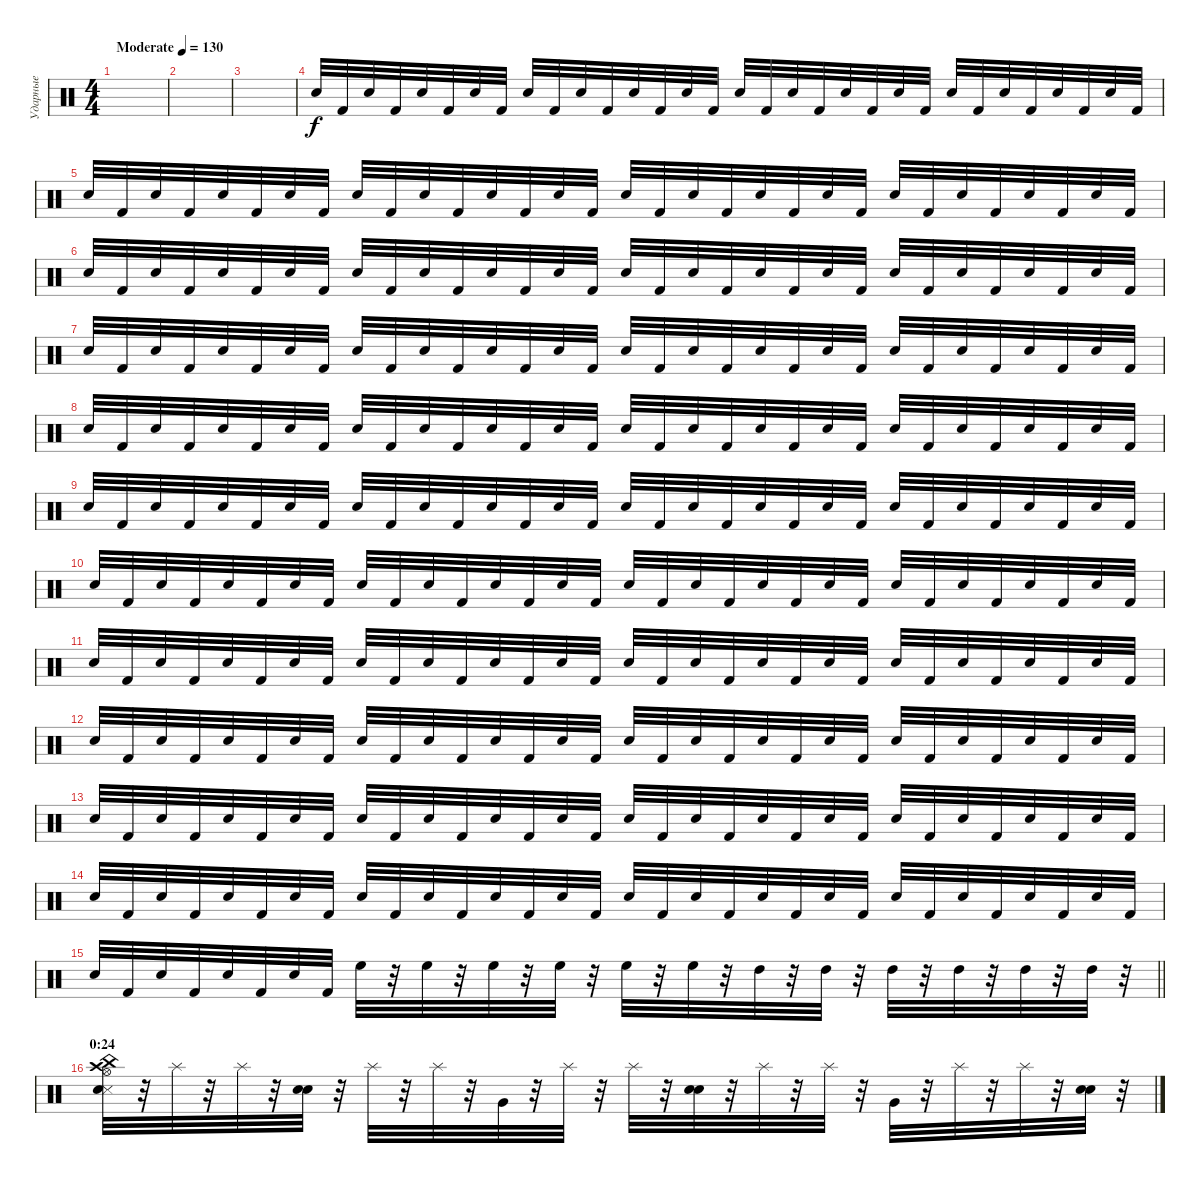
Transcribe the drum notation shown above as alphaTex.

\track ("Ударные" "Ударные") {instrument percussion}
\staff {score}
\articulation defaults
\ts (4 4)
\tempo (130 "Moderate")
\clef neutral
\ks c
|
|
|
"Electric Snare (hit)".32 "Kick (hit) 2".32 "Electric Snare (hit)".32 "Kick (hit) 2".32 "Electric Snare (hit)".32 "Kick (hit) 2".32 "Electric Snare (hit)".32 "Kick (hit) 2".32 "Electric Snare (hit)".32 "Kick (hit) 2".32 "Electric Snare (hit)".32 "Kick (hit) 2".32 "Electric Snare (hit)".32 "Kick (hit) 2".32 "Electric Snare (hit)".32 "Kick (hit) 2".32 "Electric Snare (hit)".32 "Kick (hit) 2".32 "Electric Snare (hit)".32 "Kick (hit) 2".32 "Electric Snare (hit)".32 "Kick (hit) 2".32 "Electric Snare (hit)".32 "Kick (hit) 2".32 "Electric Snare (hit)".32 "Kick (hit) 2".32 "Electric Snare (hit)".32 "Kick (hit) 2".32 "Electric Snare (hit)".32 "Kick (hit) 2".32 "Electric Snare (hit)".32 "Kick (hit) 2".32 |
"Electric Snare (hit)".32 "Kick (hit) 2".32 "Electric Snare (hit)".32 "Kick (hit) 2".32 "Electric Snare (hit)".32 "Kick (hit) 2".32 "Electric Snare (hit)".32 "Kick (hit) 2".32 "Electric Snare (hit)".32 "Kick (hit) 2".32 "Electric Snare (hit)".32 "Kick (hit) 2".32 "Electric Snare (hit)".32 "Kick (hit) 2".32 "Electric Snare (hit)".32 "Kick (hit) 2".32 "Electric Snare (hit)".32 "Kick (hit) 2".32 "Electric Snare (hit)".32 "Kick (hit) 2".32 "Electric Snare (hit)".32 "Kick (hit) 2".32 "Electric Snare (hit)".32 "Kick (hit) 2".32 "Electric Snare (hit)".32 "Kick (hit) 2".32 "Electric Snare (hit)".32 "Kick (hit) 2".32 "Electric Snare (hit)".32 "Kick (hit) 2".32 "Electric Snare (hit)".32 "Kick (hit) 2".32 |
"Electric Snare (hit)".32 "Kick (hit) 2".32 "Electric Snare (hit)".32 "Kick (hit) 2".32 "Electric Snare (hit)".32 "Kick (hit) 2".32 "Electric Snare (hit)".32 "Kick (hit) 2".32 "Electric Snare (hit)".32 "Kick (hit) 2".32 "Electric Snare (hit)".32 "Kick (hit) 2".32 "Electric Snare (hit)".32 "Kick (hit) 2".32 "Electric Snare (hit)".32 "Kick (hit) 2".32 "Electric Snare (hit)".32 "Kick (hit) 2".32 "Electric Snare (hit)".32 "Kick (hit) 2".32 "Electric Snare (hit)".32 "Kick (hit) 2".32 "Electric Snare (hit)".32 "Kick (hit) 2".32 "Electric Snare (hit)".32 "Kick (hit) 2".32 "Electric Snare (hit)".32 "Kick (hit) 2".32 "Electric Snare (hit)".32 "Kick (hit) 2".32 "Electric Snare (hit)".32 "Kick (hit) 2".32 |
"Electric Snare (hit)".32 "Kick (hit) 2".32 "Electric Snare (hit)".32 "Kick (hit) 2".32 "Electric Snare (hit)".32 "Kick (hit) 2".32 "Electric Snare (hit)".32 "Kick (hit) 2".32 "Electric Snare (hit)".32 "Kick (hit) 2".32 "Electric Snare (hit)".32 "Kick (hit) 2".32 "Electric Snare (hit)".32 "Kick (hit) 2".32 "Electric Snare (hit)".32 "Kick (hit) 2".32 "Electric Snare (hit)".32 "Kick (hit) 2".32 "Electric Snare (hit)".32 "Kick (hit) 2".32 "Electric Snare (hit)".32 "Kick (hit) 2".32 "Electric Snare (hit)".32 "Kick (hit) 2".32 "Electric Snare (hit)".32 "Kick (hit) 2".32 "Electric Snare (hit)".32 "Kick (hit) 2".32 "Electric Snare (hit)".32 "Kick (hit) 2".32 "Electric Snare (hit)".32 "Kick (hit) 2".32 |
"Electric Snare (hit)".32 "Kick (hit) 2".32 "Electric Snare (hit)".32 "Kick (hit) 2".32 "Electric Snare (hit)".32 "Kick (hit) 2".32 "Electric Snare (hit)".32 "Kick (hit) 2".32 "Electric Snare (hit)".32 "Kick (hit) 2".32 "Electric Snare (hit)".32 "Kick (hit) 2".32 "Electric Snare (hit)".32 "Kick (hit) 2".32 "Electric Snare (hit)".32 "Kick (hit) 2".32 "Electric Snare (hit)".32 "Kick (hit) 2".32 "Electric Snare (hit)".32 "Kick (hit) 2".32 "Electric Snare (hit)".32 "Kick (hit) 2".32 "Electric Snare (hit)".32 "Kick (hit) 2".32 "Electric Snare (hit)".32 "Kick (hit) 2".32 "Electric Snare (hit)".32 "Kick (hit) 2".32 "Electric Snare (hit)".32 "Kick (hit) 2".32 "Electric Snare (hit)".32 "Kick (hit) 2".32 |
"Electric Snare (hit)".32 "Kick (hit) 2".32 "Electric Snare (hit)".32 "Kick (hit) 2".32 "Electric Snare (hit)".32 "Kick (hit) 2".32 "Electric Snare (hit)".32 "Kick (hit) 2".32 "Electric Snare (hit)".32 "Kick (hit) 2".32 "Electric Snare (hit)".32 "Kick (hit) 2".32 "Electric Snare (hit)".32 "Kick (hit) 2".32 "Electric Snare (hit)".32 "Kick (hit) 2".32 "Electric Snare (hit)".32 "Kick (hit) 2".32 "Electric Snare (hit)".32 "Kick (hit) 2".32 "Electric Snare (hit)".32 "Kick (hit) 2".32 "Electric Snare (hit)".32 "Kick (hit) 2".32 "Electric Snare (hit)".32 "Kick (hit) 2".32 "Electric Snare (hit)".32 "Kick (hit) 2".32 "Electric Snare (hit)".32 "Kick (hit) 2".32 "Electric Snare (hit)".32 "Kick (hit) 2".32 |
"Electric Snare (hit)".32 "Kick (hit) 2".32 "Electric Snare (hit)".32 "Kick (hit) 2".32 "Electric Snare (hit)".32 "Kick (hit) 2".32 "Electric Snare (hit)".32 "Kick (hit) 2".32 "Electric Snare (hit)".32 "Kick (hit) 2".32 "Electric Snare (hit)".32 "Kick (hit) 2".32 "Electric Snare (hit)".32 "Kick (hit) 2".32 "Electric Snare (hit)".32 "Kick (hit) 2".32 "Electric Snare (hit)".32 "Kick (hit) 2".32 "Electric Snare (hit)".32 "Kick (hit) 2".32 "Electric Snare (hit)".32 "Kick (hit) 2".32 "Electric Snare (hit)".32 "Kick (hit) 2".32 "Electric Snare (hit)".32 "Kick (hit) 2".32 "Electric Snare (hit)".32 "Kick (hit) 2".32 "Electric Snare (hit)".32 "Kick (hit) 2".32 "Electric Snare (hit)".32 "Kick (hit) 2".32 |
"Electric Snare (hit)".32 "Kick (hit) 2".32 "Electric Snare (hit)".32 "Kick (hit) 2".32 "Electric Snare (hit)".32 "Kick (hit) 2".32 "Electric Snare (hit)".32 "Kick (hit) 2".32 "Electric Snare (hit)".32 "Kick (hit) 2".32 "Electric Snare (hit)".32 "Kick (hit) 2".32 "Electric Snare (hit)".32 "Kick (hit) 2".32 "Electric Snare (hit)".32 "Kick (hit) 2".32 "Electric Snare (hit)".32 "Kick (hit) 2".32 "Electric Snare (hit)".32 "Kick (hit) 2".32 "Electric Snare (hit)".32 "Kick (hit) 2".32 "Electric Snare (hit)".32 "Kick (hit) 2".32 "Electric Snare (hit)".32 "Kick (hit) 2".32 "Electric Snare (hit)".32 "Kick (hit) 2".32 "Electric Snare (hit)".32 "Kick (hit) 2".32 "Electric Snare (hit)".32 "Kick (hit) 2".32 |
"Electric Snare (hit)".32 "Kick (hit) 2".32 "Electric Snare (hit)".32 "Kick (hit) 2".32 "Electric Snare (hit)".32 "Kick (hit) 2".32 "Electric Snare (hit)".32 "Kick (hit) 2".32 "Electric Snare (hit)".32 "Kick (hit) 2".32 "Electric Snare (hit)".32 "Kick (hit) 2".32 "Electric Snare (hit)".32 "Kick (hit) 2".32 "Electric Snare (hit)".32 "Kick (hit) 2".32 "Electric Snare (hit)".32 "Kick (hit) 2".32 "Electric Snare (hit)".32 "Kick (hit) 2".32 "Electric Snare (hit)".32 "Kick (hit) 2".32 "Electric Snare (hit)".32 "Kick (hit) 2".32 "Electric Snare (hit)".32 "Kick (hit) 2".32 "Electric Snare (hit)".32 "Kick (hit) 2".32 "Electric Snare (hit)".32 "Kick (hit) 2".32 "Electric Snare (hit)".32 "Kick (hit) 2".32 |
"Electric Snare (hit)".32 "Kick (hit) 2".32 "Electric Snare (hit)".32 "Kick (hit) 2".32 "Electric Snare (hit)".32 "Kick (hit) 2".32 "Electric Snare (hit)".32 "Kick (hit) 2".32 "Electric Snare (hit)".32 "Kick (hit) 2".32 "Electric Snare (hit)".32 "Kick (hit) 2".32 "Electric Snare (hit)".32 "Kick (hit) 2".32 "Electric Snare (hit)".32 "Kick (hit) 2".32 "Electric Snare (hit)".32 "Kick (hit) 2".32 "Electric Snare (hit)".32 "Kick (hit) 2".32 "Electric Snare (hit)".32 "Kick (hit) 2".32 "Electric Snare (hit)".32 "Kick (hit) 2".32 "Electric Snare (hit)".32 "Kick (hit) 2".32 "Electric Snare (hit)".32 "Kick (hit) 2".32 "Electric Snare (hit)".32 "Kick (hit) 2".32 "Electric Snare (hit)".32 "Kick (hit) 2".32 |
"Electric Snare (hit)".32 "Kick (hit) 2".32 "Electric Snare (hit)".32 "Kick (hit) 2".32 "Electric Snare (hit)".32 "Kick (hit) 2".32 "Electric Snare (hit)".32 "Kick (hit) 2".32 "Electric Snare (hit)".32 "Kick (hit) 2".32 "Electric Snare (hit)".32 "Kick (hit) 2".32 "Electric Snare (hit)".32 "Kick (hit) 2".32 "Electric Snare (hit)".32 "Kick (hit) 2".32 "Electric Snare (hit)".32 "Kick (hit) 2".32 "Electric Snare (hit)".32 "Kick (hit) 2".32 "Electric Snare (hit)".32 "Kick (hit) 2".32 "Electric Snare (hit)".32 "Kick (hit) 2".32 "Electric Snare (hit)".32 "Kick (hit) 2".32 "Electric Snare (hit)".32 "Kick (hit) 2".32 "Electric Snare (hit)".32 "Kick (hit) 2".32 "Electric Snare (hit)".32 "Kick (hit) 2".32 |
\barLineRight lightlight "Electric Snare (hit)".32 "Kick (hit) 2".32 "Electric Snare (hit)".32 "Kick (hit) 2".32 "Electric Snare (hit)".32 "Kick (hit) 2".32 "Electric Snare (hit)".32 "Kick (hit) 2".32 "High Floor Tom (hit)".32
r.32 "High Floor Tom (hit)".32 r.32 "High Floor Tom (hit)".32 r.32 "High Floor Tom (hit)".32 r.32 "High Floor Tom (hit)".32 r.32 "High Floor Tom (hit)".32 r.32 "High Tom (hit)".32 r.32 "High Tom (hit)".32 r.32 "High Tom (hit)".32 r.32 "High Tom (hit)".32 r.32 "High Tom (hit)".32 r.32 "High Tom (hit)".32 r.32 |
\section ("" "0:24")
("Crash high (hit)" "China (hit)" "Hi-Hat (open)" "Metronome (hit)" "Snare (hit) 2").32 r.32 "Splash (hit)".32 r.32 "Splash (hit)".32 r.32 ("Electric Snare (hit)" "Snare (hit) 2").32 r.32 "Splash (hit)".32 r.32 "Splash (hit)".32 r.32 "Very Low Tom (hit)".32 r.32 "Splash (hit)".32 r.32 "Splash (hit)".32 r.32 ("Electric Snare (hit)" "Snare (hit) 2").32 r.32 "Splash (hit)".32 r.32 "Splash (hit)".32 r.32 "Very Low Tom (hit)".32 r.32 "Splash (hit)".32 r.32 "Splash (hit)".32 r.32 ("Electric Snare (hit)" "Snare (hit) 2").32 r.32
